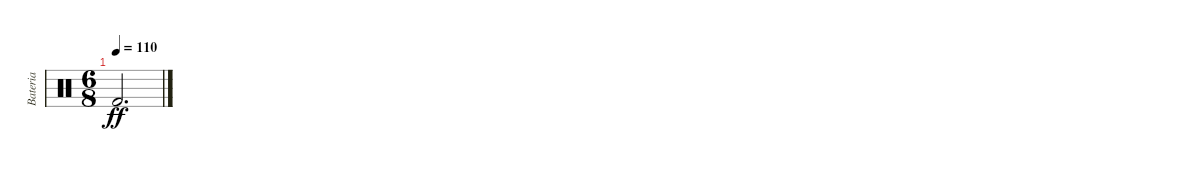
\track ("Bateria" "Bateria") {instrument percussion}
\staff {score}
\articulation defaults
\ts (6 8)
\tempo 110
\clef neutral
\ks c "Kick (hit) 2".2{d dy ff}
